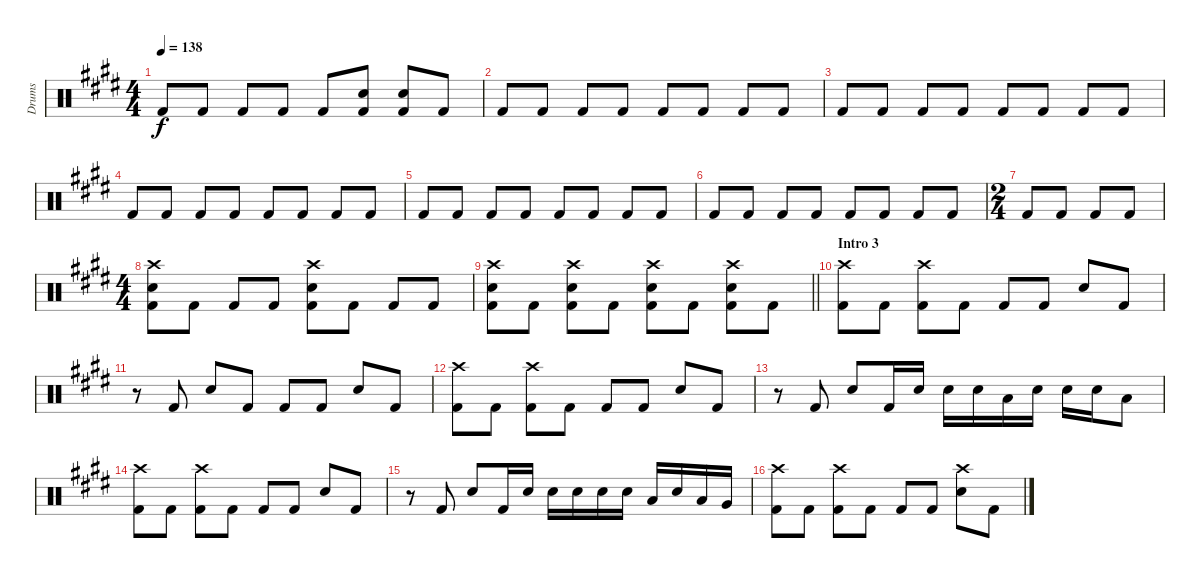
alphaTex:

\track ("Drums" "Drums") {instrument percussion}
\staff {score}
\articulation defaults
\ts (4 4)
\tempo 138
\clef neutral
\ks c#minor "Kick (hit) 2".8{dy f} "Kick (hit) 2".8 "Kick (hit) 2".8 "Kick (hit) 2".8 "Kick (hit) 2".8
("Snare (hit) 2" "Kick (hit) 2").8 ("Snare (hit) 2" "Kick (hit) 2").8 "Kick (hit) 2".8 |
"Kick (hit) 2".8 "Kick (hit) 2".8 "Kick (hit) 2".8 "Kick (hit) 2".8 "Kick (hit) 2".8 "Kick (hit) 2".8 "Kick (hit) 2".8 "Kick (hit) 2".8 |
"Kick (hit) 2".8 "Kick (hit) 2".8 "Kick (hit) 2".8 "Kick (hit) 2".8 "Kick (hit) 2".8 "Kick (hit) 2".8 "Kick (hit) 2".8 "Kick (hit) 2".8 |
"Kick (hit) 2".8 "Kick (hit) 2".8 "Kick (hit) 2".8 "Kick (hit) 2".8 "Kick (hit) 2".8 "Kick (hit) 2".8 "Kick (hit) 2".8 "Kick (hit) 2".8 |
"Kick (hit) 2".8 "Kick (hit) 2".8 "Kick (hit) 2".8 "Kick (hit) 2".8 "Kick (hit) 2".8 "Kick (hit) 2".8 "Kick (hit) 2".8 "Kick (hit) 2".8 |
"Kick (hit) 2".8 "Kick (hit) 2".8 "Kick (hit) 2".8 "Kick (hit) 2".8 "Kick (hit) 2".8 "Kick (hit) 2".8 "Kick (hit) 2".8 "Kick (hit) 2".8 |
\ts (2 4)
"Kick (hit) 2".8 "Kick (hit) 2".8 "Kick (hit) 2".8 "Kick (hit) 2".8 |
\ts (4 4)
("Crash high (hit)" "Snare (hit) 2" "Kick (hit) 2").8 "Kick (hit) 2".8 "Kick (hit) 2".8 "Kick (hit) 2".8 ("Crash high (hit)" "Snare (hit) 2" "Kick (hit) 2").8 "Kick (hit) 2".8 "Kick (hit) 2".8 "Kick (hit) 2".8 |
\barLineRight lightlight
("Crash high (hit)" "Snare (hit) 2" "Kick (hit) 2").8 "Kick (hit) 2".8 ("Crash high (hit)" "Snare (hit) 2" "Kick (hit) 2").8 "Kick (hit) 2".8 ("Crash high (hit)" "Snare (hit) 2" "Kick (hit) 2").8 "Kick (hit) 2".8 ("Crash high (hit)" "Snare (hit) 2" "Kick (hit) 2").8 "Kick (hit) 2".8 |
\section ("" "Intro 3")
("Crash high (hit)" "Kick (hit) 2").8 "Kick (hit) 2".8 ("Crash high (hit)" "Kick (hit) 2").8 "Kick (hit) 2".8 "Kick (hit) 2".8 "Kick (hit) 2".8 "Snare (hit) 2".8 "Kick (hit) 2".8 |
r.8 "Kick (hit) 2".8 "Snare (hit) 2".8 "Kick (hit) 2".8 "Kick (hit) 2".8 "Kick (hit) 2".8 "Snare (hit) 2".8 "Kick (hit) 2".8 |
("Crash high (hit)" "Kick (hit) 2").8 "Kick (hit) 2".8 ("Crash high (hit)" "Kick (hit) 2").8 "Kick (hit) 2".8 "Kick (hit) 2".8 "Kick (hit) 2".8 "Snare (hit) 2".8 "Kick (hit) 2".8 |
r.8 "Kick (hit) 2".8 "Snare (hit) 2".8 "Kick (hit) 2".16 "Snare (hit) 2".16 "Snare (hit) 2".16 "Snare (hit) 2".16 "Low Tom (hit)".16 "Snare (hit) 2".16 "Snare (hit) 2".16 "Snare (hit) 2".16 "Low Tom (hit)".8 |
("Crash high (hit)" "Kick (hit) 2").8 "Kick (hit) 2".8 ("Crash high (hit)" "Kick (hit) 2").8 "Kick (hit) 2".8 "Kick (hit) 2".8 "Kick (hit) 2".8 "Snare (hit) 2".8 "Kick (hit) 2".8 |
r.8 "Kick (hit) 2".8 "Snare (hit) 2".8 "Kick (hit) 2".16 "Snare (hit) 2".16 "Snare (hit) 2".16 "Snare (hit) 2".16 "Snare (hit) 2".16 "Snare (hit) 2".16 "Low Tom (hit)".16 "Snare (hit) 2".16 "Low Tom (hit)".16 "Very Low Tom (hit)".16 |
("Crash high (hit)" "Kick (hit) 2").8 "Kick (hit) 2".8 ("Crash high (hit)" "Kick (hit) 2").8 "Kick (hit) 2".8 "Kick (hit) 2".8 "Kick (hit) 2".8 ("Crash high (hit)" "Snare (hit) 2").8 "Kick (hit) 2".8
